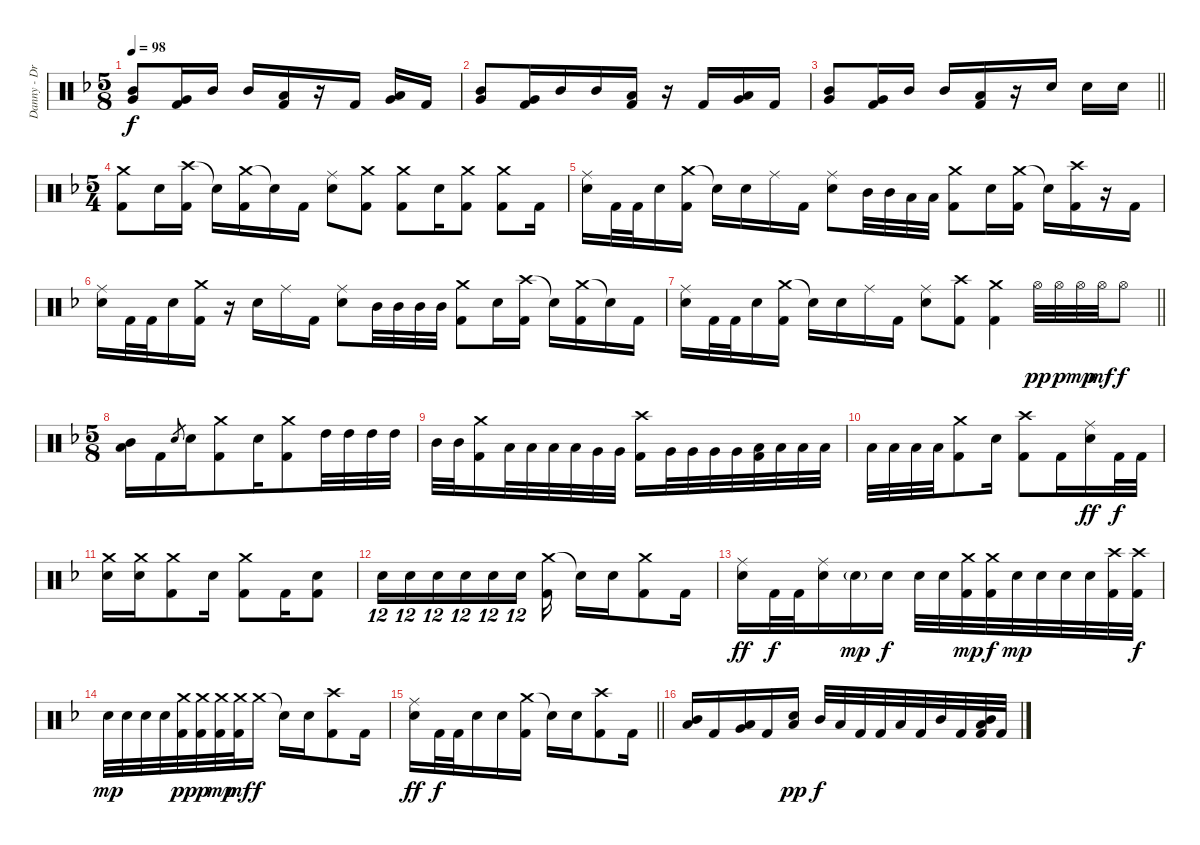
\track ("Danny - Drums" "Danny - Dr") {instrument percussion}
\staff {score}
\articulation defaults
\ts (5 8)
\tempo 98
\clef neutral
\ks dminor
("Mid Tom (hit)" "Very Low Tom (hit)").8{dy f beam merge} ("Very Low Tom (hit)" "Kick (hit) 2").16 "Mid Tom (hit)".16{beam split} "Mid Tom (hit)".16 ("Low Tom (hit)" "Kick (hit) 2").16{beam merge} r.16 "Kick (hit) 2".16{beam split} ("Low Tom (hit)" "Very Low Tom (hit)").16 "Kick (hit) 2".16 |
("Mid Tom (hit)" "Very Low Tom (hit)").8{beam merge} ("Very Low Tom (hit)" "Kick (hit) 2").16 "Mid Tom (hit)".16 "Mid Tom (hit)".16 ("Low Tom (hit)" "Kick (hit) 2").16 r.16 "Kick (hit) 2".16 ("Low Tom (hit)" "Very Low Tom (hit)").16 "Kick (hit) 2".16 |
\barLineRight lightlight
("Mid Tom (hit)" "Very Low Tom (hit)").8{beam merge} ("Very Low Tom (hit)" "Kick (hit) 2").16 "Mid Tom (hit)".16{beam split} "Mid Tom (hit)".16 ("Low Tom (hit)" "Kick (hit) 2").16{volume 13 beam merge} r.16 "Electric Snare (hit)".16{beam split} "Electric Snare (hit)".16 "Electric Snare (hit)".16 |
\ts (5 4)
("Crash medium (hit)" "Kick (hit) 2").8{volume 13} "Electric Snare (hit)".16 ("Crash high (hit)" "Kick (hit) 2").16 "Snare (hit)"{t}.16 ("Crash medium (hit)" "Kick (hit) 2").16 "Snare (hit)"{t}.16 "Kick (hit) 2".16 ("Ride (middle)" "Electric Snare (hit)").8 ("Crash medium (hit)" "Kick (hit) 2").8 ("Crash medium (hit)" "Kick (hit) 2").8 "Electric Snare (hit)".16 ("Crash medium (hit)" "Kick (hit) 2").8 ("Crash medium (hit)" "Kick (hit) 2").8 "Kick (hit) 2".16 |
("Ride (middle)" "Electric Snare (hit)").16 "Kick (hit) 2".32 "Kick (hit) 2".32 "Electric Snare (hit)".16 ("Crash medium (hit)" "Kick (hit) 2").16 "Snare (hit)"{t}.16 "Electric Snare (hit)".16 "Ride (middle)".16 "Kick (hit) 2".16 ("Ride (middle)" "Electric Snare (hit)").8 "Mid Tom (hit)".32 "Mid Tom (hit)".32 "Low Tom (hit)".32 "Low Tom (hit)".32 ("Crash medium (hit)" "Kick (hit) 2").8 "Electric Snare (hit)".16 ("Crash medium (hit)" "Kick (hit) 2").16 "Snare (hit)"{t}.16 ("Crash high (hit)" "Kick (hit) 2").16 r.16 "Kick (hit) 2".16 |
("Ride (middle)" "Electric Snare (hit)").16 "Kick (hit) 2".32 "Kick (hit) 2".32 "Electric Snare (hit)".16 ("Crash medium (hit)" "Kick (hit) 2").16 r.16 "Electric Snare (hit)".16 "Ride (middle)".16 "Kick (hit) 2".16 ("Ride (middle)" "Electric Snare (hit)").8 "Mid Tom (hit)".32 "Mid Tom (hit)".32 "Mid Tom (hit)".32 "Mid Tom (hit)".32 ("Crash medium (hit)" "Kick (hit) 2").8 "Electric Snare (hit)".16 ("Crash high (hit)" "Kick (hit) 2").16 "Snare (hit)"{t}.16 ("Crash medium (hit)" "Kick (hit) 2").16 "Snare (hit)"{t}.16 "Kick (hit) 2".16 |
\barLineRight lightlight
("Ride (middle)" "Electric Snare (hit)").16 "Kick (hit) 2".32 "Kick (hit) 2".32 "Electric Snare (hit)".16 ("Crash medium (hit)" "Kick (hit) 2").16 "Snare (hit)"{t}.16 "Electric Snare (hit)".16 "Ride (middle)".16 "Kick (hit) 2".16 ("Ride (middle)" "Electric Snare (hit)").8 ("Crash high (hit)" "Kick (hit) 2").8 ("Crash medium (hit)" "Kick (hit) 2").4 "Hi-Hat (open)".32{dy pp} "Hi-Hat (open)".32{dy p} "Hi-Hat (open)".32{dy mp} "Hi-Hat (open)".32{dy mf} "Hi-Hat (open)".8{dy f} |
\ts (5 8)
("Mid Tom (hit)" "Low Tom (hit)").16{volume 13} "Kick (hit) 2".16 "Electric Snare (hit)".8{gr beam merge} "Electric Snare (hit)".16 ("Crash medium (hit)" "Kick (hit) 2").8 "Electric Snare (hit)".16{beam merge} ("Crash medium (hit)" "Kick (hit) 2").8{beam merge} "High Tom (hit)".32 "High Tom (hit)".32 "High Tom (hit)".32 "High Tom (hit)".32 |
"Mid Tom (hit)".32 "Mid Tom (hit)".32 ("Crash medium (hit)" "Kick (hit) 2").16{beam merge} "Low Tom (hit)".32 "Low Tom (hit)".32 "Low Tom (hit)".32 "Low Tom (hit)".32{beam merge} "Very Low Tom (hit)".32 "Very Low Tom (hit)".32{beam split} ("Crash high (hit)" "Kick (hit) 2").16{beam merge} "Very Low Tom (hit)".32 "Very Low Tom (hit)".32 "Very Low Tom (hit)".32 "Very Low Tom (hit)".32{beam merge} ("Low Floor Tom (hit)" "Kick (hit) 2").32 "Low Floor Tom (hit)".32 "Low Floor Tom (hit)".32 "Low Floor Tom (hit)".32 |
"Low Floor Tom (hit)".32 "Low Floor Tom (hit)".32 "Low Floor Tom (hit)".32 "Low Floor Tom (hit)".32{beam merge} ("Crash medium (hit)" "Kick (hit) 2").8{beam merge} "Electric Snare (hit)".16{beam split} ("Crash high (hit)" "Kick (hit) 2").8{beam merge} "Kick (hit) 2".16{beam merge} ("Ride (middle)" "Electric Snare (hit)").16{dy ff} "Kick (hit) 2".32{dy f} "Kick (hit) 2".32 |
("Crash medium (hit)" "Electric Snare (hit)").16{volume 13} ("Crash medium (hit)" "Electric Snare (hit)").16{beam merge} ("Crash medium (hit)" "Kick (hit) 2").8{beam merge} "Electric Snare (hit)".16{beam split} ("Crash medium (hit)" "Kick (hit) 2").8{beam merge} "Kick (hit) 2".16 ("Electric Snare (hit)" "Kick (hit) 2").8 |
"Electric Snare (hit)".16{tu (12 8)} "Electric Snare (hit)".16{tu (12 8)} "Electric Snare (hit)".16{tu (12 8)} "Electric Snare (hit)".16{tu (12 8)} "Electric Snare (hit)".16{tu (12 8)} "Electric Snare (hit)".16{tu (12 8) beam splitsecondary} ("Crash medium (hit)" "Kick (hit) 2").16{beam split} "Snare (hit)"{t}.16{beam merge} "Electric Snare (hit)".16 ("Crash medium (hit)" "Kick (hit) 2").8{beam merge} "Kick (hit) 2".16 |
("Ride (middle)" "Electric Snare (hit)").16{dy ff} "Kick (hit) 2".32{dy f} "Kick (hit) 2".32{beam merge} ("Ride (middle)" "Electric Snare (hit)").16 "Electric Snare (hit)"{g}.16{dy mp beam merge} "Electric Snare (hit)".16{dy f beam split} "Electric Snare (hit)".32 "Electric Snare (hit)".32{beam merge} ("Crash medium (hit)" "Kick (hit) 2").32{dy mp} ("Crash medium (hit)" "Kick (hit) 2").32{dy f} "Electric Snare (hit)".32{dy mp} "Electric Snare (hit)".32{beam merge} "Electric Snare (hit)".32 "Electric Snare (hit)".32 ("Crash high (hit)" "Kick (hit) 2").32 ("Crash high (hit)" "Kick (hit) 2").32{dy f} |
"Electric Snare (hit)".32{dy mp} "Electric Snare (hit)".32 "Electric Snare (hit)".32 "Electric Snare (hit)".32{beam merge} ("Crash medium (hit)" "Kick (hit) 2").32{dy pp} ("Crash medium (hit)" "Kick (hit) 2").32{dy p} ("Crash medium (hit)" "Kick (hit) 2").32{dy mp} ("Crash medium (hit)" "Kick (hit) 2").32{dy mf beam merge} "Crash medium (hit)".16{dy f beam split} "Snare (hit)"{t}.16{beam merge} "Electric Snare (hit)".16 ("Crash high (hit)" "Kick (hit) 2").8{beam merge} "Kick (hit) 2".16 |
\barLineRight lightlight
("Ride (middle)" "Electric Snare (hit)").16{dy ff volume 13} "Kick (hit) 2".32{dy f} "Kick (hit) 2".32{beam merge} "Electric Snare (hit)".16 "Electric Snare (hit)".16{beam merge} ("Crash medium (hit)" "Kick (hit) 2").16{beam split} "Snare (hit)"{t}.16{beam merge} "Electric Snare (hit)".16 ("Crash high (hit)" "Kick (hit) 2").8{beam merge} "Kick (hit) 2".16 |
("Mid Tom (hit)" "Low Tom (hit)").16{volume 13} "Kick (hit) 2".16{beam merge} ("Low Tom (hit)" "Very Low Tom (hit)").16 "Kick (hit) 2".16{beam merge} ("Electric Snare (hit)" "Low Tom (hit)").16{dy pp beam split} "Mid Tom (hit)".32{dy f} "Low Tom (hit)".32{beam merge} "Kick (hit) 2".32 "Kick (hit) 2".32 "Low Tom (hit)".32 "Kick (hit) 2".32{beam merge} "Mid Tom (hit)".32 "Kick (hit) 2".32 ("Mid Tom (hit)" "Low Tom (hit)" "Kick (hit) 2").32 "Kick (hit) 2".32
